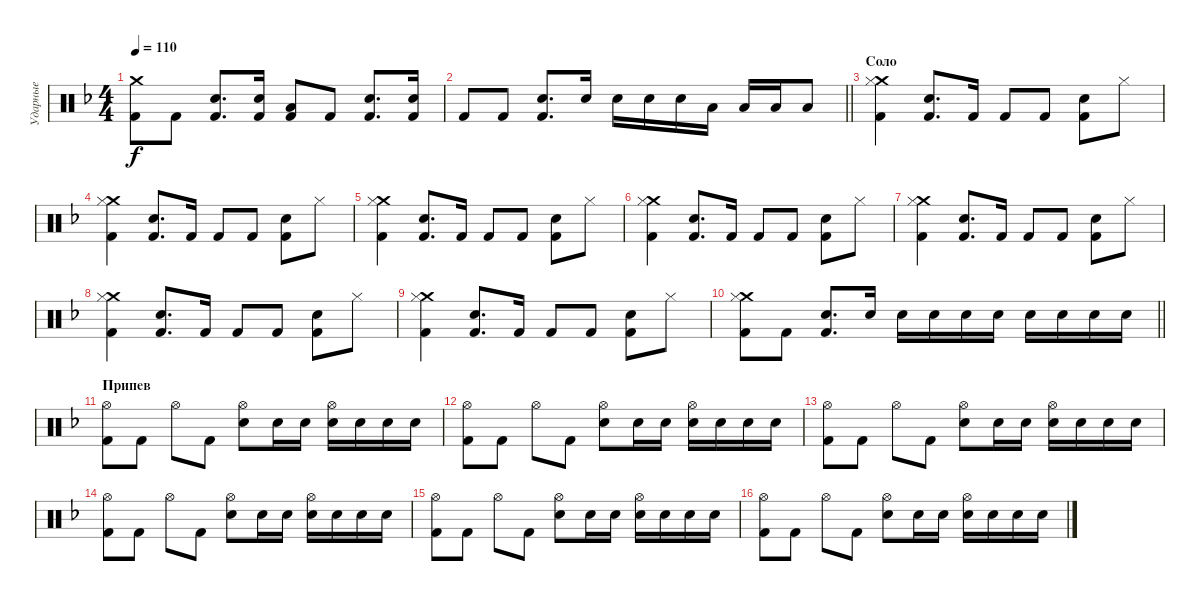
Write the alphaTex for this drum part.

\track ("Ударные" "Ударные") {instrument percussion}
\staff {score}
\articulation defaults
\ts (4 4)
\tempo 110
\clef neutral
\ks dminor
("Crash medium (hit)" "Kick (hit) 2").8{dy f} "Kick (hit) 2".8 ("Electric Snare (hit)" "Kick (hit) 2").8{d} ("Electric Snare (hit)" "Kick (hit) 2").16 ("Low Tom (hit)" "Kick (hit) 2").8 "Kick (hit) 2".8 ("Electric Snare (hit)" "Kick (hit) 2").8{d} ("Electric Snare (hit)" "Kick (hit) 2").16 |
\barLineRight lightlight "Kick (hit) 2".8 "Kick (hit) 2".8
("Electric Snare (hit)" "Kick (hit) 2").8{d} "Electric Snare (hit)".16 "Electric Snare (hit)".16 "Electric Snare (hit)".16 "Electric Snare (hit)".16 "Low Tom (hit)".16 "Low Tom (hit)".16 "Low Tom (hit)".16 "Low Tom (hit)".8 |
\section ("" "Соло")
("Crash medium (hit)" "Hi-Hat (closed)" "Kick (hit) 2").4 ("Electric Snare (hit)" "Kick (hit) 2").8{d} "Kick (hit) 2".16 "Kick (hit) 2".8 "Kick (hit) 2".8 ("Electric Snare (hit)" "Kick (hit) 2").8 "Hi-Hat (closed)".8 |
("Crash medium (hit)" "Hi-Hat (closed)" "Kick (hit) 2").4 ("Electric Snare (hit)" "Kick (hit) 2").8{d} "Kick (hit) 2".16 "Kick (hit) 2".8 "Kick (hit) 2".8 ("Electric Snare (hit)" "Kick (hit) 2").8 "Hi-Hat (closed)".8 |
("Crash medium (hit)" "Hi-Hat (closed)" "Kick (hit) 2").4 ("Electric Snare (hit)" "Kick (hit) 2").8{d} "Kick (hit) 2".16 "Kick (hit) 2".8 "Kick (hit) 2".8 ("Electric Snare (hit)" "Kick (hit) 2").8 "Hi-Hat (closed)".8 |
("Crash medium (hit)" "Hi-Hat (closed)" "Kick (hit) 2").4 ("Electric Snare (hit)" "Kick (hit) 2").8{d} "Kick (hit) 2".16 "Kick (hit) 2".8 "Kick (hit) 2".8 ("Electric Snare (hit)" "Kick (hit) 2").8 "Hi-Hat (closed)".8 |
("Crash medium (hit)" "Hi-Hat (closed)" "Kick (hit) 2").4 ("Electric Snare (hit)" "Kick (hit) 2").8{d} "Kick (hit) 2".16 "Kick (hit) 2".8 "Kick (hit) 2".8 ("Electric Snare (hit)" "Kick (hit) 2").8 "Hi-Hat (closed)".8 |
("Crash medium (hit)" "Hi-Hat (closed)" "Kick (hit) 2").4 ("Electric Snare (hit)" "Kick (hit) 2").8{d} "Kick (hit) 2".16 "Kick (hit) 2".8 "Kick (hit) 2".8 ("Electric Snare (hit)" "Kick (hit) 2").8 "Hi-Hat (closed)".8 |
("Crash medium (hit)" "Hi-Hat (closed)" "Kick (hit) 2").4 ("Electric Snare (hit)" "Kick (hit) 2").8{d} "Kick (hit) 2".16 "Kick (hit) 2".8 "Kick (hit) 2".8 ("Electric Snare (hit)" "Kick (hit) 2").8 "Hi-Hat (closed)".8 |
\barLineRight lightlight
("Crash medium (hit)" "Hi-Hat (closed)" "Kick (hit) 2").8 "Kick (hit) 2".8 ("Electric Snare (hit)" "Kick (hit) 2").8{d} "Electric Snare (hit)".16 "Electric Snare (hit)".16 "Electric Snare (hit)".16 "Electric Snare (hit)".16 "Electric Snare (hit)".16 "Electric Snare (hit)".16 "Electric Snare (hit)".16 "Electric Snare (hit)".16 "Electric Snare (hit)".16 |
\section ("" "Припев")
("Hi-Hat (open)" "Kick (hit) 2").8 "Kick (hit) 2".8 "Hi-Hat (open)".8 "Kick (hit) 2".8 ("Hi-Hat (open)" "Electric Snare (hit)").8 "Electric Snare (hit)".16 "Electric Snare (hit)".16 ("Hi-Hat (open)" "Electric Snare (hit)").16 "Electric Snare (hit)".16 "Electric Snare (hit)".16 "Electric Snare (hit)".16 |
("Hi-Hat (open)" "Kick (hit) 2").8 "Kick (hit) 2".8 "Hi-Hat (open)".8 "Kick (hit) 2".8 ("Hi-Hat (open)" "Electric Snare (hit)").8 "Electric Snare (hit)".16 "Electric Snare (hit)".16 ("Hi-Hat (open)" "Electric Snare (hit)").16 "Electric Snare (hit)".16 "Electric Snare (hit)".16 "Electric Snare (hit)".16 |
("Hi-Hat (open)" "Kick (hit) 2").8 "Kick (hit) 2".8 "Hi-Hat (open)".8 "Kick (hit) 2".8 ("Hi-Hat (open)" "Electric Snare (hit)").8 "Electric Snare (hit)".16 "Electric Snare (hit)".16 ("Hi-Hat (open)" "Electric Snare (hit)").16 "Electric Snare (hit)".16 "Electric Snare (hit)".16 "Electric Snare (hit)".16 |
("Hi-Hat (open)" "Kick (hit) 2").8 "Kick (hit) 2".8 "Hi-Hat (open)".8 "Kick (hit) 2".8 ("Hi-Hat (open)" "Electric Snare (hit)").8 "Electric Snare (hit)".16 "Electric Snare (hit)".16 ("Hi-Hat (open)" "Electric Snare (hit)").16 "Electric Snare (hit)".16 "Electric Snare (hit)".16 "Electric Snare (hit)".16 |
("Hi-Hat (open)" "Kick (hit) 2").8 "Kick (hit) 2".8 "Hi-Hat (open)".8 "Kick (hit) 2".8 ("Hi-Hat (open)" "Electric Snare (hit)").8 "Electric Snare (hit)".16 "Electric Snare (hit)".16 ("Hi-Hat (open)" "Electric Snare (hit)").16 "Electric Snare (hit)".16 "Electric Snare (hit)".16 "Electric Snare (hit)".16 |
("Hi-Hat (open)" "Kick (hit) 2").8 "Kick (hit) 2".8 "Hi-Hat (open)".8 "Kick (hit) 2".8 ("Hi-Hat (open)" "Electric Snare (hit)").8 "Electric Snare (hit)".16 "Electric Snare (hit)".16 ("Hi-Hat (open)" "Electric Snare (hit)").16 "Electric Snare (hit)".16 "Electric Snare (hit)".16 "Electric Snare (hit)".16
